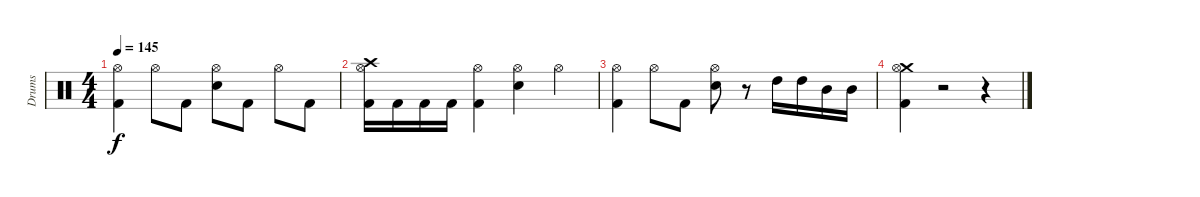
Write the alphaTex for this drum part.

\track ("Drums" "Drums") {instrument percussion}
\staff {score}
\articulation defaults
\ts (4 4)
\tempo 145
\clef neutral
\ks c
("Hi-Hat (open)" "Kick (hit) 2").4{dy f} "Hi-Hat (open)".8 "Kick (hit) 2".8 ("Hi-Hat (open)" "Electric Snare (hit)").8 "Kick (hit) 2".8 "Hi-Hat (open)".8 "Kick (hit) 2".8 |
("Crash high (hit)" "Hi-Hat (open)" "Kick (hit) 2").16 "Kick (hit) 2".16 "Kick (hit) 2".16 "Kick (hit) 2".16 ("Hi-Hat (open)" "Kick (hit) 2").4 ("Hi-Hat (open)" "Electric Snare (hit)").4 "Hi-Hat (open)".4 |
("Hi-Hat (open)" "Kick (hit) 2").4 "Hi-Hat (open)".8 "Kick (hit) 2".8 ("Hi-Hat (open)" "Electric Snare (hit)").8 r.8 "High Tom (hit)".16 "High Tom (hit)".16 "Mid Tom (hit)".16 "Mid Tom (hit)".16 |
("Crash medium (hit)" "Hi-Hat (open)" "Kick (hit) 2").4 r.2 r.4
